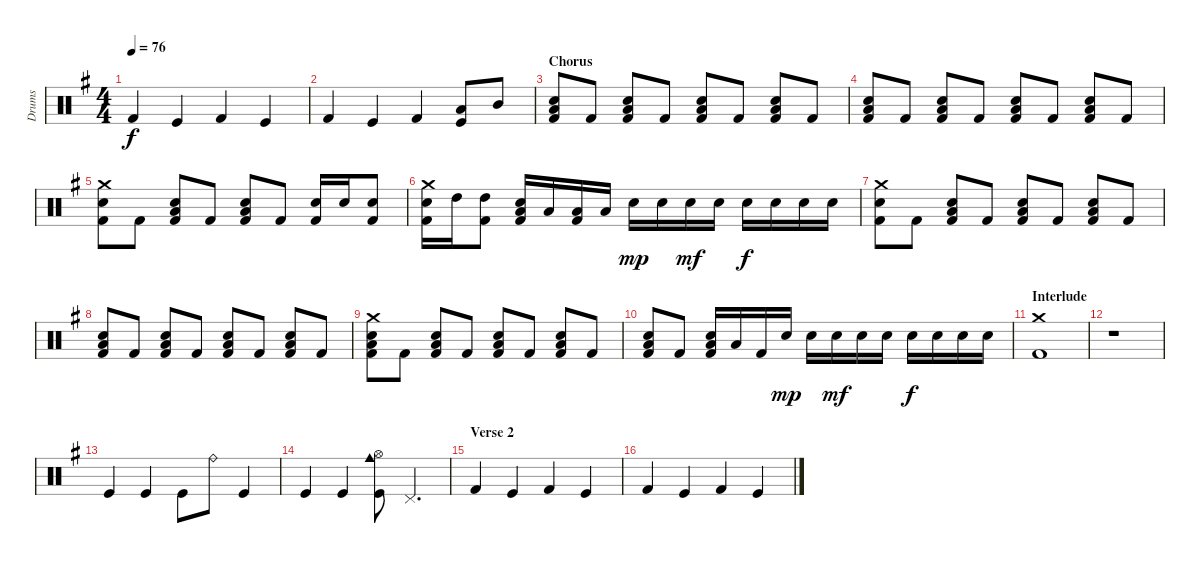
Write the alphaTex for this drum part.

\track ("Drums " "Drums ") {instrument percussion}
\staff {score}
\articulation defaults
\ts (4 4)
\tempo 76
\clef neutral
\ks eminor "Kick (hit) 2".4{dy f} "Kick (hit)".4 "Kick (hit) 2".4 "Kick (hit)".4
|
"Kick (hit) 2".4 "Kick (hit)".4 "Kick (hit) 2".4 ("Low Tom (hit)" "Kick (hit)").8 "Mid Tom (hit)".8 |
\section ("" "Chorus")
("Snare (hit) 2" "Low Floor Tom (hit)" "Kick (hit) 2").8 "Kick (hit) 2".8 ("Snare (hit) 2" "Low Floor Tom (hit)" "Kick (hit) 2").8 "Kick (hit) 2".8 ("Snare (hit) 2" "Low Floor Tom (hit)" "Kick (hit) 2").8 "Kick (hit) 2".8 ("Snare (hit) 2" "Low Floor Tom (hit)" "Kick (hit) 2").8 "Kick (hit) 2".8 |
("Snare (hit) 2" "Low Floor Tom (hit)" "Kick (hit) 2").8 "Kick (hit) 2".8 ("Snare (hit) 2" "Low Floor Tom (hit)" "Kick (hit) 2").8 "Kick (hit) 2".8 ("Snare (hit) 2" "Low Floor Tom (hit)" "Kick (hit) 2").8 "Kick (hit) 2".8 ("Snare (hit) 2" "Low Floor Tom (hit)" "Kick (hit) 2").8 "Kick (hit) 2".8 |
("Crash medium (hit)" "Snare (hit) 2" "Kick (hit) 2").8 "Kick (hit) 2".8 ("Snare (hit) 2" "Low Floor Tom (hit)" "Kick (hit) 2").8 "Kick (hit) 2".8 ("Snare (hit) 2" "Low Floor Tom (hit)" "Kick (hit) 2").8 "Kick (hit) 2".8 ("Snare (hit) 2" "Kick (hit) 2").16 "Snare (hit) 2".16 ("Snare (hit) 2" "Kick (hit) 2").8 |
("Crash medium (hit)" "Snare (hit) 2" "Kick (hit) 2").16 "High Tom (hit)".16 ("High Tom (hit)" "Kick (hit) 2").8 ("Snare (hit) 2" "Low Floor Tom (hit)" "Kick (hit) 2").16 "Low Floor Tom (hit)".16 ("Low Floor Tom (hit)" "Kick (hit) 2").16 "Low Floor Tom (hit)".16 "Snare (hit) 2".16{dy mp} "Snare (hit) 2".16 "Snare (hit) 2".16{dy mf} "Snare (hit) 2".16 "Snare (hit) 2".16{dy f} "Snare (hit) 2".16 "Snare (hit) 2".16 "Snare (hit) 2".16 |
("Crash medium (hit)" "Snare (hit) 2" "Kick (hit) 2").8 "Kick (hit) 2".8 ("Snare (hit) 2" "Low Floor Tom (hit)" "Kick (hit) 2").8 "Kick (hit) 2".8 ("Snare (hit) 2" "Low Floor Tom (hit)" "Kick (hit) 2").8 "Kick (hit) 2".8 ("Snare (hit) 2" "Low Floor Tom (hit)" "Kick (hit) 2").8 "Kick (hit) 2".8 |
("Snare (hit) 2" "Low Floor Tom (hit)" "Kick (hit) 2").8 "Kick (hit) 2".8 ("Snare (hit) 2" "Low Floor Tom (hit)" "Kick (hit) 2").8 "Kick (hit) 2".8 ("Snare (hit) 2" "Low Floor Tom (hit)" "Kick (hit) 2").8 "Kick (hit) 2".8 ("Snare (hit) 2" "Low Floor Tom (hit)" "Kick (hit) 2").8 "Kick (hit) 2".8 |
("Crash medium (hit)" "Snare (hit) 2" "Low Floor Tom (hit)" "Kick (hit) 2").8 "Kick (hit) 2".8 ("Snare (hit) 2" "Low Floor Tom (hit)" "Kick (hit) 2").8 "Kick (hit) 2".8 ("Snare (hit) 2" "Low Floor Tom (hit)" "Kick (hit) 2").8 "Kick (hit) 2".8 ("Snare (hit) 2" "Low Floor Tom (hit)" "Kick (hit) 2").8 "Kick (hit) 2".8 |
("Snare (hit) 2" "Low Floor Tom (hit)" "Kick (hit) 2").8 "Kick (hit) 2".8 ("Snare (hit) 2" "Low Floor Tom (hit)" "Kick (hit) 2").16 "Low Floor Tom (hit)".16 "Kick (hit) 2".16 "Snare (hit) 2".16{dy mp} "Snare (hit) 2".16 "Snare (hit) 2".16{dy mf} "Snare (hit) 2".16 "Snare (hit) 2".16 "Snare (hit) 2".16{dy f} "Snare (hit) 2".16 "Snare (hit) 2".16 "Snare (hit) 2".16 |
\section ("" "Interlude")
("Crash medium (hit)" "Kick (hit) 2").1 |
r.1 |
"Kick (hit)".4 "Kick (hit)".4 "Kick (hit)".8 "Ride (bell)".8 "Kick (hit)".4 |
"Kick (hit)".4 "Kick (hit)".4 ("Hi-Hat (open)" "Cowbell medium (hit)" "Kick (hit)").8 "Pedal Hi-Hat (hit)".4{d} |
\section ("" "Verse 2")
"Kick (hit) 2".4 "Kick (hit)".4 "Kick (hit) 2".4 "Kick (hit)".4 |
"Kick (hit) 2".4 "Kick (hit)".4 "Kick (hit) 2".4 "Kick (hit)".4
